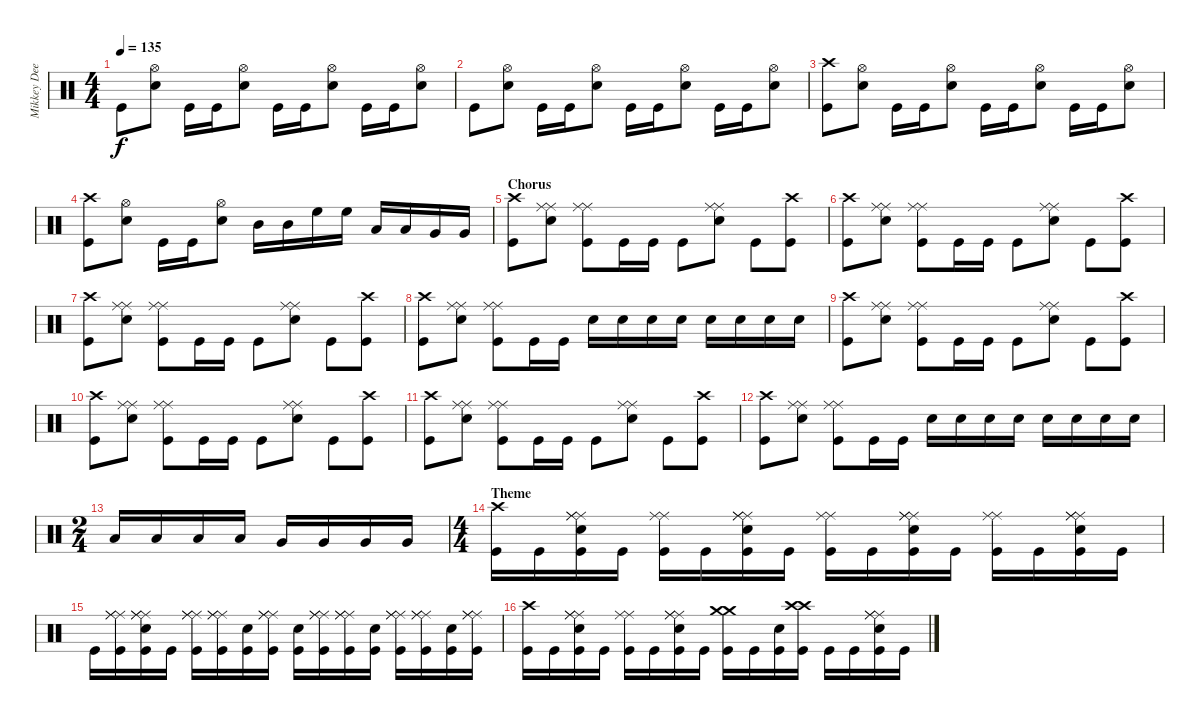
\track ("Mikkey Dee - Drums" "Mikkey Dee") {instrument percussion}
\staff {score}
\articulation defaults
\ts (4 4)
\tempo 135
\clef neutral
\ks c "Kick (hit)".8{dy f}
("Snare (hit) 2" "Hi-Hat (open)").8 "Kick (hit)".16 "Kick (hit)".16 ("Snare (hit) 2" "Hi-Hat (open)").8 "Kick (hit)".16 "Kick (hit)".16 ("Snare (hit) 2" "Hi-Hat (open)").8 "Kick (hit)".16 "Kick (hit)".16 ("Snare (hit) 2" "Hi-Hat (open)").8 |
"Kick (hit)".8 ("Snare (hit) 2" "Hi-Hat (open)").8 "Kick (hit)".16 "Kick (hit)".16 ("Snare (hit) 2" "Hi-Hat (open)").8 "Kick (hit)".16 "Kick (hit)".16 ("Snare (hit) 2" "Hi-Hat (open)").8 "Kick (hit)".16 "Kick (hit)".16 ("Snare (hit) 2" "Hi-Hat (open)").8 |
("Crash high (hit)" "Kick (hit)").8 ("Snare (hit) 2" "Hi-Hat (open)").8 "Kick (hit)".16 "Kick (hit)".16 ("Snare (hit) 2" "Hi-Hat (open)").8 "Kick (hit)".16 "Kick (hit)".16 ("Snare (hit) 2" "Hi-Hat (open)").8 "Kick (hit)".16 "Kick (hit)".16 ("Snare (hit) 2" "Hi-Hat (open)").8 |
("Crash high (hit)" "Kick (hit)").8 ("Snare (hit) 2" "Hi-Hat (open)").8 "Kick (hit)".16 "Kick (hit)".16 ("Snare (hit) 2" "Hi-Hat (open)").8 "Mid Tom (hit)".16 "Mid Tom (hit)".16 "High Floor Tom (hit)".16 "High Floor Tom (hit)".16 "Low Tom (hit)".16 "Low Tom (hit)".16 "Very Low Tom (hit)".16 "Very Low Tom (hit)".16 |
\section ("" "Chorus")
("Crash high (hit)" "Kick (hit)").8 ("Ride (middle)" "Ride (middle)" "Snare (hit) 2").8 ("Ride (middle)" "Ride (middle)" "Kick (hit)").8 "Kick (hit)".16 "Kick (hit)".16 "Kick (hit)".8 ("Ride (middle)" "Ride (middle)" "Snare (hit) 2").8 "Kick (hit)".8 ("Crash high (hit)" "Kick (hit)").8 |
("Crash high (hit)" "Kick (hit)").8 ("Ride (middle)" "Ride (middle)" "Snare (hit) 2").8 ("Ride (middle)" "Ride (middle)" "Kick (hit)").8 "Kick (hit)".16 "Kick (hit)".16 "Kick (hit)".8 ("Ride (middle)" "Ride (middle)" "Snare (hit) 2").8 "Kick (hit)".8 ("Crash high (hit)" "Kick (hit)").8 |
("Crash high (hit)" "Kick (hit)").8 ("Ride (middle)" "Ride (middle)" "Snare (hit) 2").8 ("Ride (middle)" "Ride (middle)" "Kick (hit)").8 "Kick (hit)".16 "Kick (hit)".16 "Kick (hit)".8 ("Ride (middle)" "Ride (middle)" "Snare (hit) 2").8 "Kick (hit)".8 ("Crash high (hit)" "Kick (hit)").8 |
("Crash high (hit)" "Kick (hit)").8 ("Ride (middle)" "Ride (middle)" "Snare (hit) 2").8 ("Ride (middle)" "Ride (middle)" "Kick (hit)").8 "Kick (hit)".16 "Kick (hit)".16 "Snare (hit) 2".16 "Snare (hit) 2".16 "Snare (hit) 2".16 "Snare (hit) 2".16 "Snare (hit) 2".16 "Snare (hit) 2".16 "Snare (hit) 2".16 "Snare (hit) 2".16 |
("Crash high (hit)" "Kick (hit)").8 ("Ride (middle)" "Ride (middle)" "Snare (hit) 2").8 ("Ride (middle)" "Ride (middle)" "Kick (hit)").8 "Kick (hit)".16 "Kick (hit)".16 "Kick (hit)".8 ("Ride (middle)" "Ride (middle)" "Snare (hit) 2").8 "Kick (hit)".8 ("Crash high (hit)" "Kick (hit)").8 |
("Crash high (hit)" "Kick (hit)").8 ("Ride (middle)" "Ride (middle)" "Snare (hit) 2").8 ("Ride (middle)" "Ride (middle)" "Kick (hit)").8 "Kick (hit)".16 "Kick (hit)".16 "Kick (hit)".8 ("Ride (middle)" "Ride (middle)" "Snare (hit) 2").8 "Kick (hit)".8 ("Crash high (hit)" "Kick (hit)").8 |
("Crash high (hit)" "Kick (hit)").8 ("Ride (middle)" "Ride (middle)" "Snare (hit) 2").8 ("Ride (middle)" "Ride (middle)" "Kick (hit)").8 "Kick (hit)".16 "Kick (hit)".16 "Kick (hit)".8 ("Ride (middle)" "Ride (middle)" "Snare (hit) 2").8 "Kick (hit)".8 ("Crash high (hit)" "Kick (hit)").8 |
("Crash high (hit)" "Kick (hit)").8 ("Ride (middle)" "Ride (middle)" "Snare (hit) 2").8 ("Ride (middle)" "Ride (middle)" "Kick (hit)").8 "Kick (hit)".16 "Kick (hit)".16 "Snare (hit) 2".16 "Snare (hit) 2".16 "Snare (hit) 2".16 "Snare (hit) 2".16 "Snare (hit) 2".16 "Snare (hit) 2".16 "Snare (hit) 2".16 "Snare (hit) 2".16 |
\ts (2 4)
"Low Tom (hit)".16 "Low Tom (hit)".16 "Low Tom (hit)".16 "Low Tom (hit)".16 "Very Low Tom (hit)".16 "Very Low Tom (hit)".16 "Very Low Tom (hit)".16 "Very Low Tom (hit)".16 |
\ts (4 4)
\section ("" "Theme")
("Crash high (hit)" "Kick (hit)").16 "Kick (hit)".16 ("Ride (middle)" "Ride (middle)" "Ride (middle)" "Snare (hit) 2" "Kick (hit)").16 "Kick (hit)".16 ("Ride (middle)" "Ride (middle)" "Kick (hit)").16 "Kick (hit)".16 ("Ride (middle)" "Ride (middle)" "Ride (middle)" "Snare (hit) 2" "Kick (hit)").16 "Kick (hit)".16 ("Ride (middle)" "Ride (middle)" "Kick (hit)").16 "Kick (hit)".16 ("Ride (middle)" "Ride (middle)" "Ride (middle)" "Snare (hit) 2" "Kick (hit)").16 "Kick (hit)".16 ("Ride (middle)" "Ride (middle)" "Kick (hit)").16 "Kick (hit)".16 ("Ride (middle)" "Ride (middle)" "Ride (middle)" "Snare (hit) 2" "Kick (hit)").16 "Kick (hit)".16 |
"Kick (hit)".16 ("Ride (middle)" "Ride (middle)" "Ride (middle)" "Kick (hit)").16 ("Ride (middle)" "Ride (middle)" "Ride (middle)" "Snare (hit) 2" "Kick (hit)").16 "Kick (hit)".16 ("Ride (middle)" "Ride (middle)" "Ride (middle)" "Kick (hit)").16 ("Ride (middle)" "Ride (middle)" "Ride (middle)" "Kick (hit)").16 ("Snare (hit) 2" "Kick (hit)").16 ("Ride (middle)" "Ride (middle)" "Ride (middle)" "Kick (hit)").16 ("Snare (hit) 2" "Kick (hit)").16 ("Ride (middle)" "Ride (middle)" "Ride (middle)" "Kick (hit)").16 ("Ride (middle)" "Ride (middle)" "Ride (middle)" "Kick (hit)").16 ("Snare (hit) 2" "Kick (hit)").16 ("Ride (middle)" "Ride (middle)" "Ride (middle)" "Kick (hit)").16 ("Ride (middle)" "Ride (middle)" "Ride (middle)" "Kick (hit)").16 ("Snare (hit) 2" "Kick (hit)").16 ("Ride (middle)" "Ride (middle)" "Ride (middle)" "Kick (hit)").16 |
("Crash high (hit)" "Kick (hit)").16 "Kick (hit)".16 ("Ride (middle)" "Ride (middle)" "Ride (middle)" "Snare (hit) 2" "Kick (hit)").16 "Kick (hit)".16 ("Ride (middle)" "Ride (middle)" "Kick (hit)").16 "Kick (hit)".16 ("Ride (middle)" "Ride (middle)" "Ride (middle)" "Snare (hit) 2" "Kick (hit)").16 "Kick (hit)".16 ("Crash medium (hit)" "Crash medium (hit)" "Kick (hit)").16 "Kick (hit)".16 ("Snare (hit) 2" "Kick (hit)").16 ("Crash high (hit)" "Crash high (hit)" "Kick (hit)").16 "Kick (hit)".16 "Kick (hit)".16 ("Ride (middle)" "Ride (middle)" "Ride (middle)" "Snare (hit) 2" "Kick (hit)").16 "Kick (hit)".16
